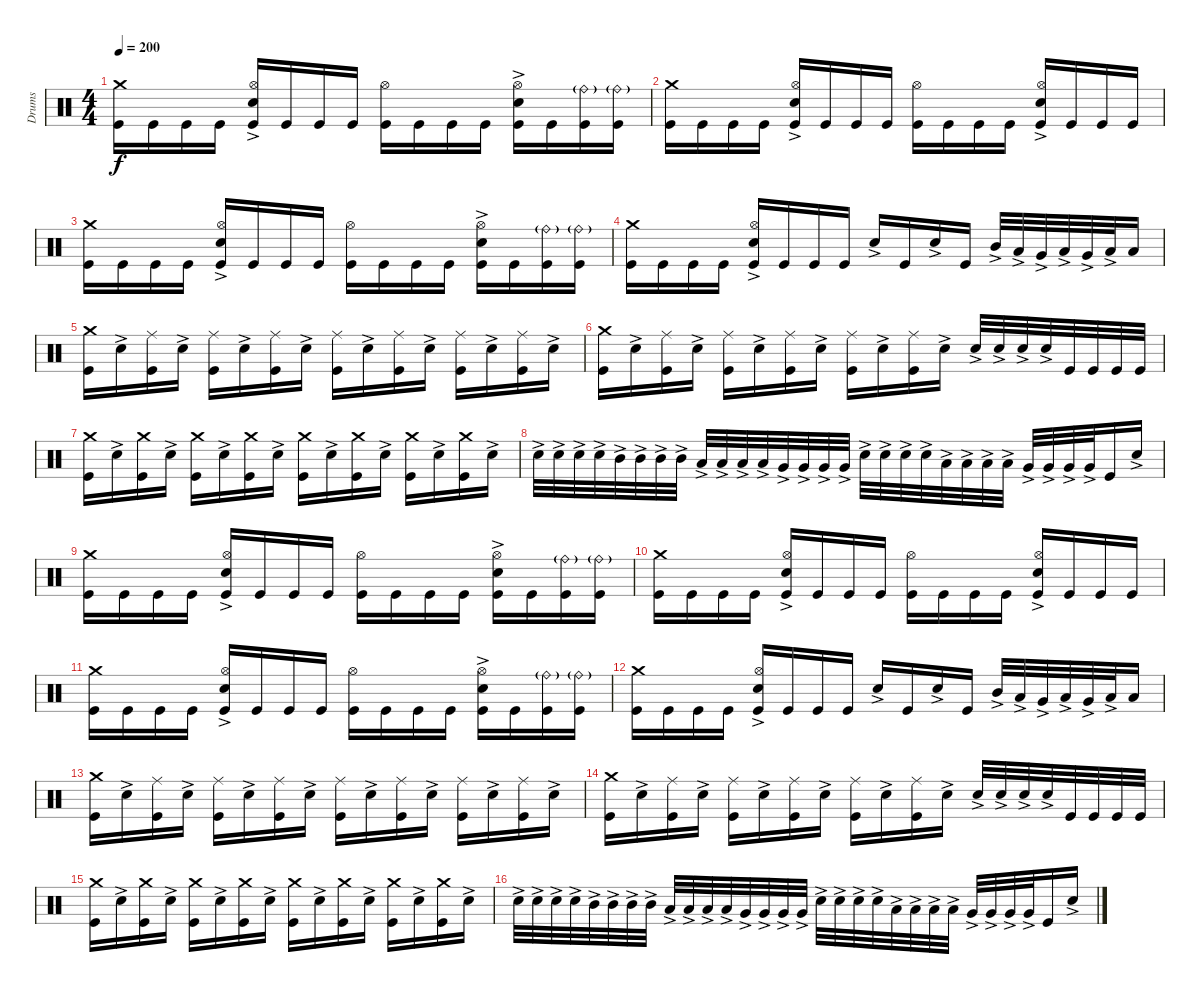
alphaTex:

\track ("Drums" "Drums") {instrument percussion}
\staff {score}
\articulation defaults
\ts (4 4)
\tempo 200
\clef neutral
\ks c
("Kick (hit)" "Crash medium (hit)").16{dy f} "Kick (hit)".16 "Kick (hit)".16 "Kick (hit)".16 ("Kick (hit)" "Hi-Hat (open)" "Snare (hit) 2"{ac}).16 "Kick (hit)".16 "Kick (hit)".16 "Kick (hit)".16 ("Kick (hit)" "Hi-Hat (open)").16 "Kick (hit)".16 "Kick (hit)".16 "Kick (hit)".16 ("Kick (hit)" "Hi-Hat (open)" "Snare (hit) 2"{ac}).16 "Kick (hit)".16 ("Kick (hit)" "Ride (bell)"{g}).16 ("Kick (hit)" "Ride (bell)"{g}).16 |
("Kick (hit)" "Crash medium (hit)").16 "Kick (hit)".16 "Kick (hit)".16 "Kick (hit)".16 ("Kick (hit)" "Hi-Hat (open)" "Snare (hit) 2"{ac}).16 "Kick (hit)".16 "Kick (hit)".16 "Kick (hit)".16 ("Kick (hit)" "Hi-Hat (open)").16 "Kick (hit)".16 "Kick (hit)".16 "Kick (hit)".16 ("Kick (hit)" "Hi-Hat (open)" "Snare (hit) 2"{ac}).16 "Kick (hit)".16 "Kick (hit)".16 "Kick (hit)".16 |
("Kick (hit)" "Crash medium (hit)").16 "Kick (hit)".16 "Kick (hit)".16 "Kick (hit)".16 ("Kick (hit)" "Hi-Hat (open)" "Snare (hit) 2"{ac}).16 "Kick (hit)".16 "Kick (hit)".16 "Kick (hit)".16 ("Kick (hit)" "Hi-Hat (open)").16 "Kick (hit)".16 "Kick (hit)".16 "Kick (hit)".16 ("Kick (hit)" "Hi-Hat (open)" "Snare (hit) 2"{ac}).16 "Kick (hit)".16 ("Kick (hit)" "Ride (bell)"{g}).16 ("Kick (hit)" "Ride (bell)"{g}).16 |
("Kick (hit)" "Crash medium (hit)").16 "Kick (hit)".16 "Kick (hit)".16 "Kick (hit)".16 ("Kick (hit)" "Hi-Hat (open)" "Snare (hit) 2"{ac}).16 "Kick (hit)".16 "Kick (hit)".16 "Kick (hit)".16 "Snare (hit) 2"{ac}.16 "Kick (hit)".16 "Snare (hit) 2"{ac}.16 "Kick (hit)".16 "Mid Tom (hit)"{ac}.32 "Low Tom (hit)"{ac}.32 "Very Low Tom (hit)"{ac}.32 "Low Tom (hit)"{ac}.32 "Very Low Tom (hit)"{ac}.32 "Low Floor Tom (hit)"{ac}.32 "Low Floor Tom (hit)".16 |
("Kick (hit)" "Crash medium (hit)").16 "Snare (hit) 2"{ac}.16 ("Kick (hit)" "Ride (middle)").16 "Snare (hit) 2"{ac}.16 ("Kick (hit)" "Ride (middle)").16 "Snare (hit) 2"{ac}.16 ("Kick (hit)" "Ride (middle)").16 "Snare (hit) 2"{ac}.16 ("Kick (hit)" "Ride (middle)").16 "Snare (hit) 2"{ac}.16 ("Kick (hit)" "Ride (middle)").16 "Snare (hit) 2"{ac}.16 ("Kick (hit)" "Ride (middle)").16 "Snare (hit) 2"{ac}.16 ("Kick (hit)" "Ride (middle)").16 "Snare (hit) 2"{ac}.16 |
("Kick (hit)" "Crash medium (hit)").16 "Snare (hit) 2"{ac}.16 ("Kick (hit)" "Ride (middle)").16 "Snare (hit) 2"{ac}.16 ("Kick (hit)" "Ride (middle)").16 "Snare (hit) 2"{ac}.16 ("Kick (hit)" "Ride (middle)").16 "Snare (hit) 2"{ac}.16 ("Kick (hit)" "Ride (middle)").16 "Snare (hit) 2"{ac}.16 ("Kick (hit)" "Ride (middle)").16 "Snare (hit) 2"{ac}.16 "Snare (hit) 2"{ac}.32 "Snare (hit) 2"{ac}.32 "Snare (hit) 2"{ac}.32 "Snare (hit) 2"{ac}.32 "Kick (hit)".32 "Kick (hit)".32 "Kick (hit)".32 "Kick (hit)".32 |
("Kick (hit)" "Crash medium (hit)").16 "Snare (hit) 2"{ac}.16 ("Kick (hit)" "Crash medium (hit)").16 "Snare (hit) 2"{ac}.16 ("Kick (hit)" "Crash medium (hit)").16 "Snare (hit) 2"{ac}.16 ("Kick (hit)" "Crash medium (hit)").16 "Snare (hit) 2"{ac}.16 ("Kick (hit)" "Crash medium (hit)").16 "Snare (hit) 2"{ac}.16 ("Kick (hit)" "Crash medium (hit)").16 "Snare (hit) 2"{ac}.16 ("Kick (hit)" "Crash medium (hit)").16 "Snare (hit) 2"{ac}.16 ("Kick (hit)" "Crash medium (hit)").16 "Snare (hit) 2"{ac}.16 |
"Snare (hit) 2"{ac}.32 "Snare (hit) 2"{ac}.32 "Snare (hit) 2"{ac}.32 "Snare (hit) 2"{ac}.32 "Mid Tom (hit)"{ac}.32 "Mid Tom (hit)"{ac}.32 "Mid Tom (hit)"{ac}.32 "Mid Tom (hit)"{ac}.32 "Low Tom (hit)"{ac}.32 "Low Tom (hit)"{ac}.32 "Low Tom (hit)"{ac}.32 "Low Tom (hit)"{ac}.32 "Very Low Tom (hit)"{ac}.32 "Very Low Tom (hit)"{ac}.32 "Very Low Tom (hit)"{ac}.32 "Very Low Tom (hit)"{ac}.32 "Snare (hit) 2"{ac}.32 "Snare (hit) 2"{ac}.32 "Snare (hit) 2"{ac}.32 "Snare (hit) 2"{ac}.32 "Low Tom (hit)"{ac}.32 "Low Tom (hit)"{ac}.32 "Low Tom (hit)"{ac}.32 "Low Tom (hit)"{ac}.32 "Very Low Tom (hit)"{ac}.32 "Very Low Tom (hit)"{ac}.32 "Very Low Tom (hit)"{ac}.32 "Very Low Tom (hit)"{ac}.32 "Kick (hit)".16 "Snare (hit) 2"{ac}.16 |
("Kick (hit)" "Crash medium (hit)").16 "Kick (hit)".16 "Kick (hit)".16 "Kick (hit)".16 ("Kick (hit)" "Hi-Hat (open)" "Snare (hit) 2"{ac}).16 "Kick (hit)".16 "Kick (hit)".16 "Kick (hit)".16 ("Kick (hit)" "Hi-Hat (open)").16 "Kick (hit)".16 "Kick (hit)".16 "Kick (hit)".16 ("Kick (hit)" "Hi-Hat (open)" "Snare (hit) 2"{ac}).16 "Kick (hit)".16 ("Kick (hit)" "Ride (bell)"{g}).16 ("Kick (hit)" "Ride (bell)"{g}).16 |
("Kick (hit)" "Crash medium (hit)").16 "Kick (hit)".16 "Kick (hit)".16 "Kick (hit)".16 ("Kick (hit)" "Hi-Hat (open)" "Snare (hit) 2"{ac}).16 "Kick (hit)".16 "Kick (hit)".16 "Kick (hit)".16 ("Kick (hit)" "Hi-Hat (open)").16 "Kick (hit)".16 "Kick (hit)".16 "Kick (hit)".16 ("Kick (hit)" "Hi-Hat (open)" "Snare (hit) 2"{ac}).16 "Kick (hit)".16 "Kick (hit)".16 "Kick (hit)".16 |
("Kick (hit)" "Crash medium (hit)").16 "Kick (hit)".16 "Kick (hit)".16 "Kick (hit)".16 ("Kick (hit)" "Hi-Hat (open)" "Snare (hit) 2"{ac}).16 "Kick (hit)".16 "Kick (hit)".16 "Kick (hit)".16 ("Kick (hit)" "Hi-Hat (open)").16 "Kick (hit)".16 "Kick (hit)".16 "Kick (hit)".16 ("Kick (hit)" "Hi-Hat (open)" "Snare (hit) 2"{ac}).16 "Kick (hit)".16 ("Kick (hit)" "Ride (bell)"{g}).16 ("Kick (hit)" "Ride (bell)"{g}).16 |
("Kick (hit)" "Crash medium (hit)").16 "Kick (hit)".16 "Kick (hit)".16 "Kick (hit)".16 ("Kick (hit)" "Hi-Hat (open)" "Snare (hit) 2"{ac}).16 "Kick (hit)".16 "Kick (hit)".16 "Kick (hit)".16 "Snare (hit) 2"{ac}.16 "Kick (hit)".16 "Snare (hit) 2"{ac}.16 "Kick (hit)".16 "Mid Tom (hit)"{ac}.32 "Low Tom (hit)"{ac}.32 "Very Low Tom (hit)"{ac}.32 "Low Tom (hit)"{ac}.32 "Very Low Tom (hit)"{ac}.32 "Low Floor Tom (hit)"{ac}.32 "Low Floor Tom (hit)".16 |
("Kick (hit)" "Crash medium (hit)").16 "Snare (hit) 2"{ac}.16 ("Kick (hit)" "Ride (middle)").16 "Snare (hit) 2"{ac}.16 ("Kick (hit)" "Ride (middle)").16 "Snare (hit) 2"{ac}.16 ("Kick (hit)" "Ride (middle)").16 "Snare (hit) 2"{ac}.16 ("Kick (hit)" "Ride (middle)").16 "Snare (hit) 2"{ac}.16 ("Kick (hit)" "Ride (middle)").16 "Snare (hit) 2"{ac}.16 ("Kick (hit)" "Ride (middle)").16 "Snare (hit) 2"{ac}.16 ("Kick (hit)" "Ride (middle)").16 "Snare (hit) 2"{ac}.16 |
("Kick (hit)" "Crash medium (hit)").16 "Snare (hit) 2"{ac}.16 ("Kick (hit)" "Ride (middle)").16 "Snare (hit) 2"{ac}.16 ("Kick (hit)" "Ride (middle)").16 "Snare (hit) 2"{ac}.16 ("Kick (hit)" "Ride (middle)").16 "Snare (hit) 2"{ac}.16 ("Kick (hit)" "Ride (middle)").16 "Snare (hit) 2"{ac}.16 ("Kick (hit)" "Ride (middle)").16 "Snare (hit) 2"{ac}.16 "Snare (hit) 2"{ac}.32 "Snare (hit) 2"{ac}.32 "Snare (hit) 2"{ac}.32 "Snare (hit) 2"{ac}.32 "Kick (hit)".32 "Kick (hit)".32 "Kick (hit)".32 "Kick (hit)".32 |
("Kick (hit)" "Crash medium (hit)").16 "Snare (hit) 2"{ac}.16 ("Kick (hit)" "Crash medium (hit)").16 "Snare (hit) 2"{ac}.16 ("Kick (hit)" "Crash medium (hit)").16 "Snare (hit) 2"{ac}.16 ("Kick (hit)" "Crash medium (hit)").16 "Snare (hit) 2"{ac}.16 ("Kick (hit)" "Crash medium (hit)").16 "Snare (hit) 2"{ac}.16 ("Kick (hit)" "Crash medium (hit)").16 "Snare (hit) 2"{ac}.16 ("Kick (hit)" "Crash medium (hit)").16 "Snare (hit) 2"{ac}.16 ("Kick (hit)" "Crash medium (hit)").16 "Snare (hit) 2"{ac}.16 |
"Snare (hit) 2"{ac}.32 "Snare (hit) 2"{ac}.32 "Snare (hit) 2"{ac}.32 "Snare (hit) 2"{ac}.32 "Mid Tom (hit)"{ac}.32 "Mid Tom (hit)"{ac}.32 "Mid Tom (hit)"{ac}.32 "Mid Tom (hit)"{ac}.32 "Low Tom (hit)"{ac}.32 "Low Tom (hit)"{ac}.32 "Low Tom (hit)"{ac}.32 "Low Tom (hit)"{ac}.32 "Very Low Tom (hit)"{ac}.32 "Very Low Tom (hit)"{ac}.32 "Very Low Tom (hit)"{ac}.32 "Very Low Tom (hit)"{ac}.32 "Snare (hit) 2"{ac}.32 "Snare (hit) 2"{ac}.32 "Snare (hit) 2"{ac}.32 "Snare (hit) 2"{ac}.32 "Low Tom (hit)"{ac}.32 "Low Tom (hit)"{ac}.32 "Low Tom (hit)"{ac}.32 "Low Tom (hit)"{ac}.32 "Very Low Tom (hit)"{ac}.32 "Very Low Tom (hit)"{ac}.32 "Very Low Tom (hit)"{ac}.32 "Very Low Tom (hit)"{ac}.32 "Kick (hit)".16 "Snare (hit) 2"{ac}.16
